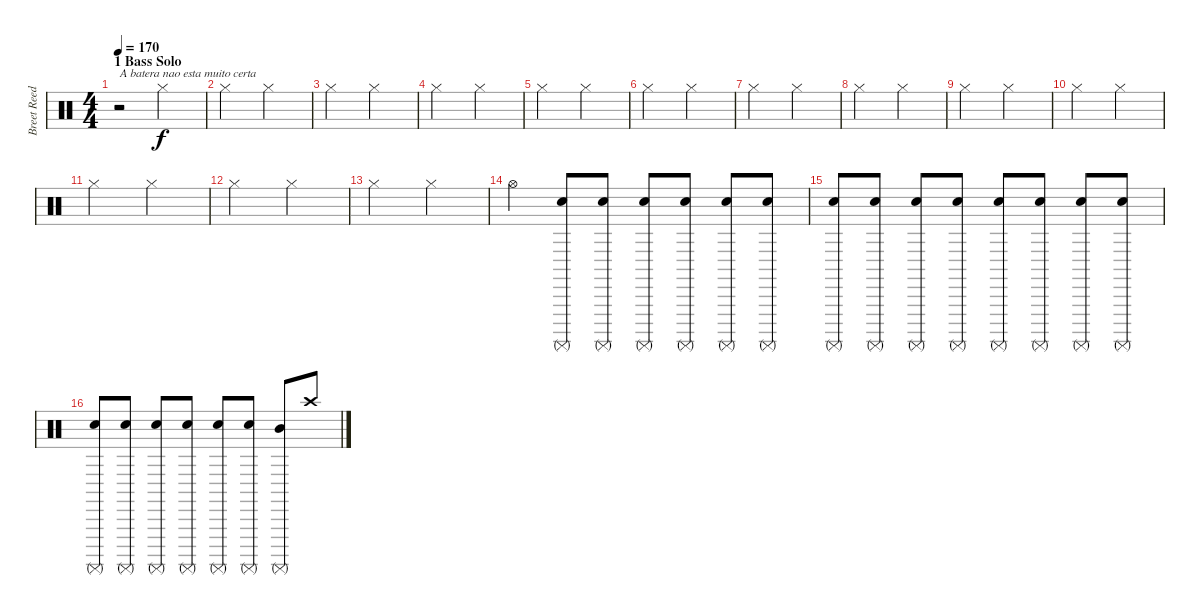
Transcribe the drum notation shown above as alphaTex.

\track ("Breet Reed" "Breet Reed") {instrument percussion}
\staff {score}
\articulation defaults
\ts (4 4)
\section ("" "1 Bass Solo")
\tempo 170
\clef neutral
\ks c
r.2{txt "A batera nao esta muito certa" dy f} "Hi-Hat (closed)".2 |
"Hi-Hat (closed)".2 "Hi-Hat (closed)".2 |
"Hi-Hat (closed)".2 "Hi-Hat (closed)".2 |
"Hi-Hat (closed)".2 "Hi-Hat (closed)".2 |
"Hi-Hat (closed)".2 "Hi-Hat (closed)".2 |
"Hi-Hat (closed)".2 "Hi-Hat (closed)".2 |
"Hi-Hat (closed)".2 "Hi-Hat (closed)".2 |
"Hi-Hat (closed)".2 "Hi-Hat (closed)".2 |
"Hi-Hat (closed)".2 "Hi-Hat (closed)".2 |
"Hi-Hat (closed)".2 "Hi-Hat (closed)".2 |
"Hi-Hat (closed)".2 "Hi-Hat (closed)".2 |
"Hi-Hat (closed)".2 "Hi-Hat (closed)".2 |
"Hi-Hat (closed)".2 "Hi-Hat (closed)".2 |
"Hi-Hat (open)".4 ("Snare (hit) 2" "Surdo (mute)").8 ("Snare (hit) 2" "Surdo (mute)").8 ("Snare (hit) 2" "Surdo (mute)").8 ("Snare (hit) 2" "Surdo (mute)").8 ("Snare (hit) 2" "Surdo (mute)").8 ("Snare (hit) 2" "Surdo (mute)").8 |
("Snare (hit) 2" "Surdo (mute)").8 ("Snare (hit) 2" "Surdo (mute)").8 ("Snare (hit) 2" "Surdo (mute)").8 ("Snare (hit) 2" "Surdo (mute)").8 ("Snare (hit) 2" "Surdo (mute)").8 ("Snare (hit) 2" "Surdo (mute)").8 ("Snare (hit) 2" "Surdo (mute)").8 ("Snare (hit) 2" "Surdo (mute)").8 |
("Snare (hit) 2" "Surdo (mute)").8 ("Snare (hit) 2" "Surdo (mute)").8 ("Snare (hit) 2" "Surdo (mute)").8 ("Snare (hit) 2" "Surdo (mute)").8 ("Snare (hit) 2" "Surdo (mute)").8 ("Snare (hit) 2" "Surdo (mute)").8 ("Mid Tom (hit)" "Surdo (mute)").8 "Crash high (hit)".8
